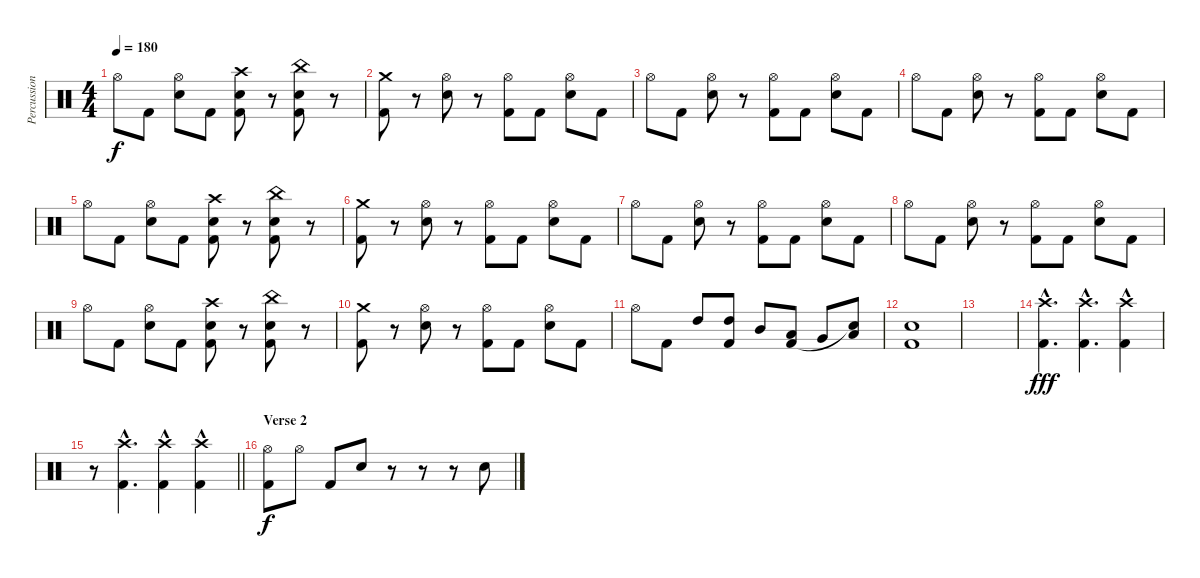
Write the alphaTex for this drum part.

\track ("Percussion" "Percussion") {instrument percussion}
\staff {score}
\articulation defaults
\ts (4 4)
\tempo 180
\clef neutral
\ks c "Hi-Hat (open)".8{dy f} "Kick (hit) 2".8
("Hi-Hat (open)" "Electric Snare (hit)").8 "Kick (hit) 2".8 ("Crash high (hit)" "Electric Snare (hit)" "Kick (hit) 2").8 r.8 ("China (hit)" "Electric Snare (hit)" "Kick (hit) 2").8 r.8 |
("Crash medium (hit)" "Kick (hit) 2").8 r.8 ("Hi-Hat (open)" "Electric Snare (hit)").8 r.8 ("Hi-Hat (open)" "Kick (hit) 2").8 "Kick (hit) 2".8 ("Hi-Hat (open)" "Electric Snare (hit)").8 "Kick (hit) 2".8 |
"Hi-Hat (open)".8 "Kick (hit) 2".8 ("Hi-Hat (open)" "Electric Snare (hit)").8 r.8 ("Hi-Hat (open)" "Kick (hit) 2").8 "Kick (hit) 2".8 ("Hi-Hat (open)" "Electric Snare (hit)").8 "Kick (hit) 2".8 |
"Hi-Hat (open)".8 "Kick (hit) 2".8 ("Hi-Hat (open)" "Electric Snare (hit)").8 r.8 ("Hi-Hat (open)" "Kick (hit) 2").8 "Kick (hit) 2".8 ("Hi-Hat (open)" "Electric Snare (hit)").8 "Kick (hit) 2".8 |
"Hi-Hat (open)".8 "Kick (hit) 2".8 ("Hi-Hat (open)" "Electric Snare (hit)").8 "Kick (hit) 2".8 ("Crash high (hit)" "Electric Snare (hit)" "Kick (hit) 2").8 r.8 ("China (hit)" "Electric Snare (hit)" "Kick (hit) 2").8 r.8 |
("Crash medium (hit)" "Kick (hit) 2").8 r.8 ("Hi-Hat (open)" "Electric Snare (hit)").8 r.8 ("Hi-Hat (open)" "Kick (hit) 2").8 "Kick (hit) 2".8 ("Hi-Hat (open)" "Electric Snare (hit)").8 "Kick (hit) 2".8 |
"Hi-Hat (open)".8 "Kick (hit) 2".8 ("Hi-Hat (open)" "Electric Snare (hit)").8 r.8 ("Hi-Hat (open)" "Kick (hit) 2").8 "Kick (hit) 2".8 ("Hi-Hat (open)" "Electric Snare (hit)").8 "Kick (hit) 2".8 |
"Hi-Hat (open)".8 "Kick (hit) 2".8 ("Hi-Hat (open)" "Electric Snare (hit)").8 r.8 ("Hi-Hat (open)" "Kick (hit) 2").8 "Kick (hit) 2".8 ("Hi-Hat (open)" "Electric Snare (hit)").8 "Kick (hit) 2".8 |
"Hi-Hat (open)".8 "Kick (hit) 2".8 ("Hi-Hat (open)" "Electric Snare (hit)").8 "Kick (hit) 2".8 ("Crash high (hit)" "Electric Snare (hit)" "Kick (hit) 2").8 r.8 ("China (hit)" "Electric Snare (hit)" "Kick (hit) 2").8 r.8 |
("Crash medium (hit)" "Kick (hit) 2").8 r.8 ("Hi-Hat (open)" "Electric Snare (hit)").8 r.8 ("Hi-Hat (open)" "Kick (hit) 2").8 "Kick (hit) 2".8 ("Hi-Hat (open)" "Electric Snare (hit)").8 "Kick (hit) 2".8 |
"Hi-Hat (open)".8 "Kick (hit) 2".8 "High Tom (hit)".8 ("High Tom (hit)" "Kick (hit) 2").8 "Mid Tom (hit)".8 ("Low Tom (hit)" "Kick (hit) 2").8 "Very Low Tom (hit)".8 ("Low Floor Tom (hit)" "Snare (hit)"{t}).8 |
("Electric Snare (hit)" "Kick (hit) 2").1 |
|
("Crash high (hit)"{hac} "Kick (hit) 2"{hac}).4{d dy fff} ("Crash high (hit)"{hac} "Kick (hit) 2"{hac}).4{d} ("Crash high (hit)"{hac} "Kick (hit) 2"{hac}).4 |
\barLineRight lightlight
r.8 ("Crash high (hit)"{hac} "Kick (hit) 2"{hac}).4{d} ("Crash high (hit)"{hac} "Kick (hit) 2"{hac}).4 ("Crash high (hit)"{hac} "Kick (hit) 2"{hac}).4 |
\section ("" "Verse 2")
("Hi-Hat (open)" "Kick (hit) 2").8{dy f} "Hi-Hat (open)".8 "Kick (hit) 2".8 "Electric Snare (hit)".8 r.8 r.8 r.8 "Electric Snare (hit)".8
